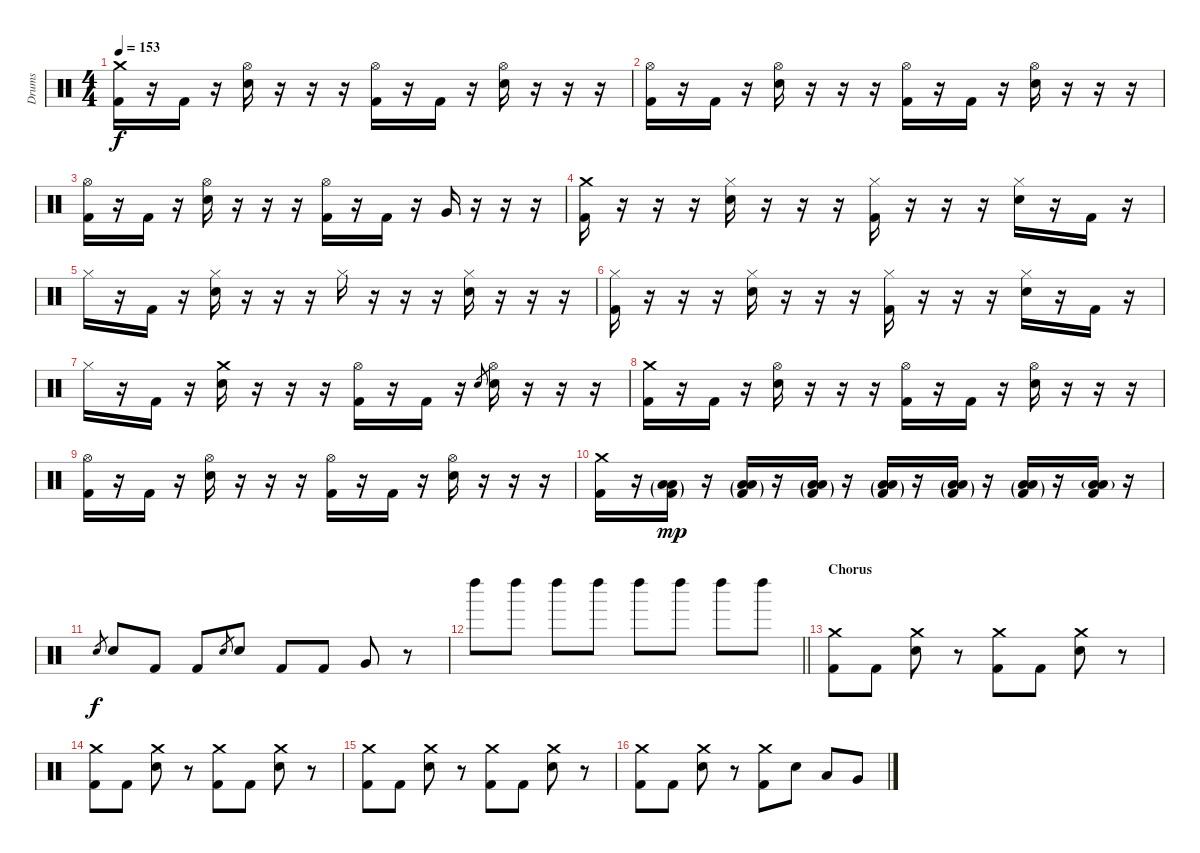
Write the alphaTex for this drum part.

\track ("Drums" "Drums") {instrument percussion}
\staff {score}
\articulation defaults
\ts (4 4)
\tempo 153
\clef neutral
\ks c
("Crash medium (hit)" "Kick (hit) 2").16{dy f} r.16 "Kick (hit) 2".16 r.16 ("Hi-Hat (open)" "Electric Snare (hit)").16 r.16 r.16 r.16 ("Hi-Hat (open)" "Kick (hit) 2").16 r.16 "Kick (hit) 2".16 r.16 ("Hi-Hat (open)" "Electric Snare (hit)").16 r.16 r.16 r.16 |
("Hi-Hat (open)" "Kick (hit) 2").16 r.16 "Kick (hit) 2".16 r.16 ("Hi-Hat (open)" "Electric Snare (hit)").16 r.16 r.16 r.16 ("Hi-Hat (open)" "Kick (hit) 2").16 r.16 "Kick (hit) 2".16 r.16 ("Hi-Hat (open)" "Electric Snare (hit)").16 r.16 r.16 r.16 |
("Hi-Hat (open)" "Kick (hit) 2").16 r.16 "Kick (hit) 2".16 r.16 ("Hi-Hat (open)" "Electric Snare (hit)").16 r.16 r.16 r.16 ("Hi-Hat (open)" "Kick (hit) 2").16 r.16 "Kick (hit) 2".16 r.16 "Very Low Tom (hit)".16 r.16 r.16 r.16 |
("Crash medium (hit)" "Kick (hit) 2").16 r.16 r.16 r.16 ("Hi-Hat (closed)" "Electric Snare (hit)").16 r.16 r.16 r.16 ("Hi-Hat (closed)" "Kick (hit) 2").16 r.16 r.16 r.16 ("Hi-Hat (closed)" "Electric Snare (hit)").16 r.16 "Kick (hit) 2".16 r.16 |
"Hi-Hat (closed)".16 r.16 "Kick (hit) 2".16 r.16 ("Hi-Hat (closed)" "Electric Snare (hit)").16 r.16 r.16 r.16 "Hi-Hat (closed)".16 r.16 r.16 r.16 ("Hi-Hat (closed)" "Electric Snare (hit)").16 r.16 r.16 r.16 |
("Hi-Hat (closed)" "Kick (hit) 2").16 r.16 r.16 r.16 ("Hi-Hat (closed)" "Electric Snare (hit)").16 r.16 r.16 r.16 ("Hi-Hat (closed)" "Kick (hit) 2").16 r.16 r.16 r.16 ("Hi-Hat (closed)" "Electric Snare (hit)").16 r.16 "Kick (hit) 2".16 r.16 |
"Hi-Hat (closed)".16 r.16 "Kick (hit) 2".16 r.16 ("Crash medium (hit)" "Electric Snare (hit)").16 r.16 r.16 r.16 ("Hi-Hat (open)" "Kick (hit) 2").16 r.16 "Kick (hit) 2".16 r.16 "Electric Snare (hit)".8{gr} ("Hi-Hat (open)" "Electric Snare (hit)").16 r.16 r.16 r.16 |
("Crash medium (hit)" "Kick (hit) 2").16 r.16 "Kick (hit) 2".16 r.16 ("Hi-Hat (open)" "Electric Snare (hit)").16 r.16 r.16 r.16 ("Hi-Hat (open)" "Kick (hit) 2").16 r.16 "Kick (hit) 2".16 r.16 ("Hi-Hat (open)" "Electric Snare (hit)").16 r.16 r.16 r.16 |
("Hi-Hat (open)" "Kick (hit) 2").16 r.16 "Kick (hit) 2".16 r.16 ("Hi-Hat (open)" "Electric Snare (hit)").16 r.16 r.16 r.16 ("Hi-Hat (open)" "Kick (hit) 2").16 r.16 "Kick (hit) 2".16 r.16 ("Hi-Hat (open)" "Electric Snare (hit)").16 r.16 r.16 r.16 |
("Crash medium (hit)" "Kick (hit) 2").16 r.16 ("Low Floor Tom (hit)"{g} "Low Floor Tom (hit)"{g} "Kick (hit) 2"{g}).16{dy mp} r.16 ("Low Floor Tom (hit)"{g} "Low Floor Tom (hit)"{g} "Kick (hit) 2"{g}).16 r.16 ("Low Floor Tom (hit)"{g} "Low Floor Tom (hit)"{g} "Kick (hit) 2"{g}).16 r.16 ("Low Floor Tom (hit)"{g} "Low Floor Tom (hit)"{g} "Kick (hit) 2"{g}).16 r.16 ("Low Floor Tom (hit)"{g} "Low Floor Tom (hit)"{g} "Kick (hit) 2"{g}).16 r.16 ("Low Floor Tom (hit)"{g} "Low Floor Tom (hit)"{g} "Kick (hit) 2"{g}).16 r.16 ("Low Floor Tom (hit)"{g} "Low Floor Tom (hit)"{g} "Kick (hit) 2").16 r.16 |
"Electric Snare (hit)".8{gr dy f} "Electric Snare (hit)".8 "Kick (hit) 2".8 "Kick (hit) 2".8 "Electric Snare (hit)".8{gr} "Electric Snare (hit)".8 "Kick (hit) 2".8 "Kick (hit) 2".8 "Very Low Tom (hit)".8 r.8 |
\barLineRight lightlight "Left Maraca (hit)".8 "Left Maraca (hit)".8 "Left Maraca (hit)".8 "Left Maraca (hit)".8 "Left Maraca (hit)".8 "Left Maraca (hit)".8 "Left Maraca (hit)".8 "Left Maraca (hit)".8
|
\section ("" "Chorus")
("Crash medium (hit)" "Kick (hit) 2").8 "Kick (hit) 2".8 ("Crash medium (hit)" "Electric Snare (hit)").8 r.8 ("Crash medium (hit)" "Kick (hit) 2").8 "Kick (hit) 2".8 ("Crash medium (hit)" "Electric Snare (hit)").8 r.8 |
("Crash medium (hit)" "Kick (hit) 2").8 "Kick (hit) 2".8 ("Crash medium (hit)" "Electric Snare (hit)").8 r.8 ("Crash medium (hit)" "Kick (hit) 2").8 "Kick (hit) 2".8 ("Crash medium (hit)" "Electric Snare (hit)").8 r.8 |
("Crash medium (hit)" "Kick (hit) 2").8 "Kick (hit) 2".8 ("Crash medium (hit)" "Electric Snare (hit)").8 r.8 ("Crash medium (hit)" "Kick (hit) 2").8 "Kick (hit) 2".8 ("Crash medium (hit)" "Electric Snare (hit)").8 r.8 |
("Crash medium (hit)" "Kick (hit) 2").8 "Kick (hit) 2".8 ("Crash medium (hit)" "Electric Snare (hit)").8 r.8 ("Crash medium (hit)" "Kick (hit) 2").8 "Electric Snare (hit)".8 "Low Tom (hit)".8 "Very Low Tom (hit)".8
